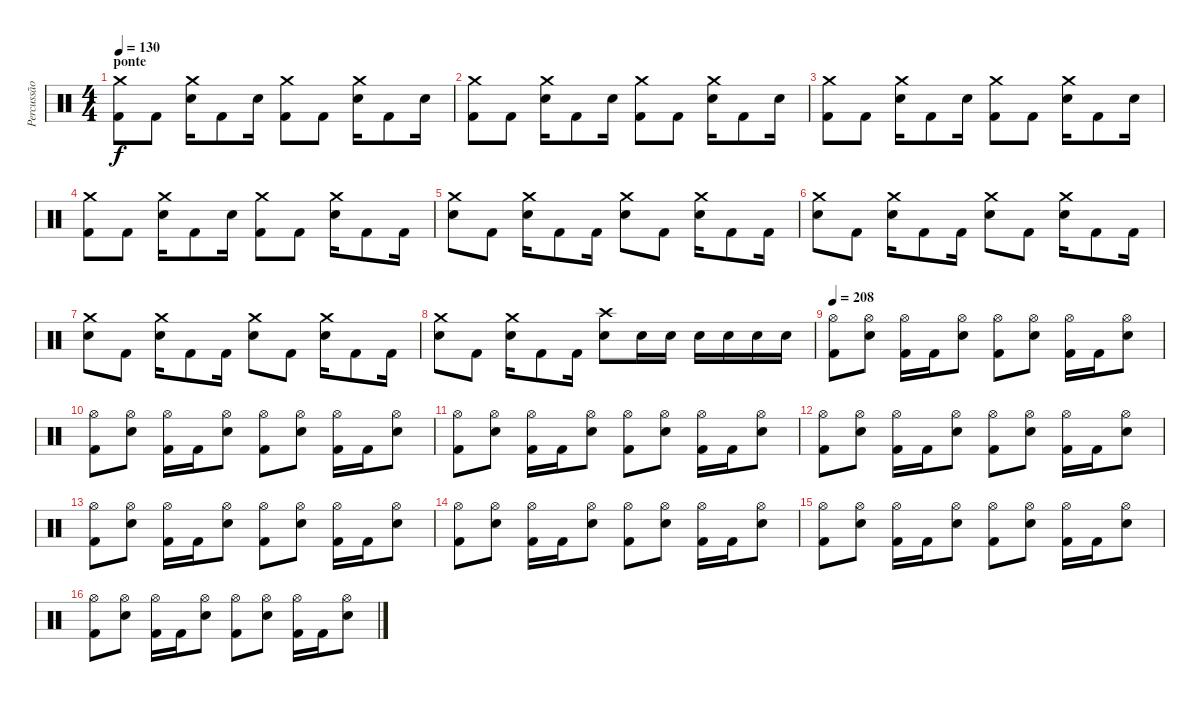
\track ("Percussão" "Percussão") {instrument percussion}
\staff {score}
\articulation defaults
\ts (4 4)
\section ("" "ponte")
\tempo 130
\clef neutral
\ks c
("Crash medium (hit)" "Kick (hit) 2").8{dy f} "Kick (hit) 2".8 ("Crash medium (hit)" "Snare (hit) 2").16 "Kick (hit) 2".8 "Snare (hit) 2".16 ("Crash medium (hit)" "Kick (hit) 2").8 "Kick (hit) 2".8 ("Crash medium (hit)" "Snare (hit) 2").16 "Kick (hit) 2".8 "Snare (hit) 2".16 |
("Crash medium (hit)" "Kick (hit) 2").8 "Kick (hit) 2".8 ("Crash medium (hit)" "Snare (hit) 2").16 "Kick (hit) 2".8 "Snare (hit) 2".16 ("Crash medium (hit)" "Kick (hit) 2").8 "Kick (hit) 2".8 ("Crash medium (hit)" "Snare (hit) 2").16 "Kick (hit) 2".8 "Snare (hit) 2".16 |
("Crash medium (hit)" "Kick (hit) 2").8 "Kick (hit) 2".8 ("Crash medium (hit)" "Snare (hit) 2").16 "Kick (hit) 2".8 "Snare (hit) 2".16 ("Crash medium (hit)" "Kick (hit) 2").8 "Kick (hit) 2".8 ("Crash medium (hit)" "Snare (hit) 2").16 "Kick (hit) 2".8 "Snare (hit) 2".16 |
("Crash medium (hit)" "Kick (hit) 2").8 "Kick (hit) 2".8 ("Crash medium (hit)" "Snare (hit) 2").16 "Kick (hit) 2".8 "Snare (hit) 2".16 ("Crash medium (hit)" "Kick (hit) 2").8 "Kick (hit) 2".8 ("Crash medium (hit)" "Snare (hit) 2").16 "Kick (hit) 2".8 "Kick (hit) 2".16 |
("Crash medium (hit)" "Snare (hit) 2").8 "Kick (hit) 2".8 ("Crash medium (hit)" "Snare (hit) 2").16 "Kick (hit) 2".8 "Kick (hit) 2".16 ("Crash medium (hit)" "Snare (hit) 2").8 "Kick (hit) 2".8 ("Crash medium (hit)" "Snare (hit) 2").16 "Kick (hit) 2".8 "Kick (hit) 2".16 |
("Crash medium (hit)" "Snare (hit) 2").8 "Kick (hit) 2".8 ("Crash medium (hit)" "Snare (hit) 2").16 "Kick (hit) 2".8 "Kick (hit) 2".16 ("Crash medium (hit)" "Snare (hit) 2").8 "Kick (hit) 2".8 ("Crash medium (hit)" "Snare (hit) 2").16 "Kick (hit) 2".8 "Kick (hit) 2".16 |
("Crash medium (hit)" "Snare (hit) 2").8 "Kick (hit) 2".8 ("Crash medium (hit)" "Snare (hit) 2").16 "Kick (hit) 2".8 "Kick (hit) 2".16 ("Crash medium (hit)" "Snare (hit) 2").8 "Kick (hit) 2".8 ("Crash medium (hit)" "Snare (hit) 2").16 "Kick (hit) 2".8 "Kick (hit) 2".16 |
("Crash medium (hit)" "Snare (hit) 2").8 "Kick (hit) 2".8 ("Crash medium (hit)" "Snare (hit) 2").16 "Kick (hit) 2".8 "Kick (hit) 2".16 ("Crash high (hit)" "Snare (hit) 2").8 "Snare (hit) 2".16 "Snare (hit) 2".16 "Snare (hit) 2".16 "Snare (hit) 2".16 "Snare (hit) 2".16 "Snare (hit) 2".16 |
\tempo 208
("Hi-Hat (open)" "Kick (hit) 2").8 ("Hi-Hat (open)" "Snare (hit) 2").8 ("Hi-Hat (open)" "Kick (hit) 2").16 "Kick (hit) 2".16 ("Hi-Hat (open)" "Snare (hit) 2").8 ("Hi-Hat (open)" "Kick (hit) 2").8 ("Hi-Hat (open)" "Snare (hit) 2").8 ("Hi-Hat (open)" "Kick (hit) 2").16 "Kick (hit) 2".16 ("Hi-Hat (open)" "Snare (hit) 2").8 |
("Hi-Hat (open)" "Kick (hit) 2").8 ("Hi-Hat (open)" "Snare (hit) 2").8 ("Hi-Hat (open)" "Kick (hit) 2").16 "Kick (hit) 2".16 ("Hi-Hat (open)" "Snare (hit) 2").8 ("Hi-Hat (open)" "Kick (hit) 2").8 ("Hi-Hat (open)" "Snare (hit) 2").8 ("Hi-Hat (open)" "Kick (hit) 2").16 "Kick (hit) 2".16 ("Hi-Hat (open)" "Snare (hit) 2").8 |
("Hi-Hat (open)" "Kick (hit) 2").8 ("Hi-Hat (open)" "Snare (hit) 2").8 ("Hi-Hat (open)" "Kick (hit) 2").16 "Kick (hit) 2".16 ("Hi-Hat (open)" "Snare (hit) 2").8 ("Hi-Hat (open)" "Kick (hit) 2").8 ("Hi-Hat (open)" "Snare (hit) 2").8 ("Hi-Hat (open)" "Kick (hit) 2").16 "Kick (hit) 2".16 ("Hi-Hat (open)" "Snare (hit) 2").8 |
("Hi-Hat (open)" "Kick (hit) 2").8 ("Hi-Hat (open)" "Snare (hit) 2").8 ("Hi-Hat (open)" "Kick (hit) 2").16 "Kick (hit) 2".16 ("Hi-Hat (open)" "Snare (hit) 2").8 ("Hi-Hat (open)" "Kick (hit) 2").8 ("Hi-Hat (open)" "Snare (hit) 2").8 ("Hi-Hat (open)" "Kick (hit) 2").16 "Kick (hit) 2".16 ("Hi-Hat (open)" "Snare (hit) 2").8 |
("Hi-Hat (open)" "Kick (hit) 2").8 ("Hi-Hat (open)" "Snare (hit) 2").8 ("Hi-Hat (open)" "Kick (hit) 2").16 "Kick (hit) 2".16 ("Hi-Hat (open)" "Snare (hit) 2").8 ("Hi-Hat (open)" "Kick (hit) 2").8 ("Hi-Hat (open)" "Snare (hit) 2").8 ("Hi-Hat (open)" "Kick (hit) 2").16 "Kick (hit) 2".16 ("Hi-Hat (open)" "Snare (hit) 2").8 |
("Hi-Hat (open)" "Kick (hit) 2").8 ("Hi-Hat (open)" "Snare (hit) 2").8 ("Hi-Hat (open)" "Kick (hit) 2").16 "Kick (hit) 2".16 ("Hi-Hat (open)" "Snare (hit) 2").8 ("Hi-Hat (open)" "Kick (hit) 2").8 ("Hi-Hat (open)" "Snare (hit) 2").8 ("Hi-Hat (open)" "Kick (hit) 2").16 "Kick (hit) 2".16 ("Hi-Hat (open)" "Snare (hit) 2").8 |
("Hi-Hat (open)" "Kick (hit) 2").8 ("Hi-Hat (open)" "Snare (hit) 2").8 ("Hi-Hat (open)" "Kick (hit) 2").16 "Kick (hit) 2".16 ("Hi-Hat (open)" "Snare (hit) 2").8 ("Hi-Hat (open)" "Kick (hit) 2").8 ("Hi-Hat (open)" "Snare (hit) 2").8 ("Hi-Hat (open)" "Kick (hit) 2").16 "Kick (hit) 2".16 ("Hi-Hat (open)" "Snare (hit) 2").8 |
("Hi-Hat (open)" "Kick (hit) 2").8 ("Hi-Hat (open)" "Snare (hit) 2").8 ("Hi-Hat (open)" "Kick (hit) 2").16 "Kick (hit) 2".16 ("Hi-Hat (open)" "Snare (hit) 2").8 ("Hi-Hat (open)" "Kick (hit) 2").8 ("Hi-Hat (open)" "Snare (hit) 2").8 ("Hi-Hat (open)" "Kick (hit) 2").16 "Kick (hit) 2".16 ("Hi-Hat (open)" "Snare (hit) 2").8
